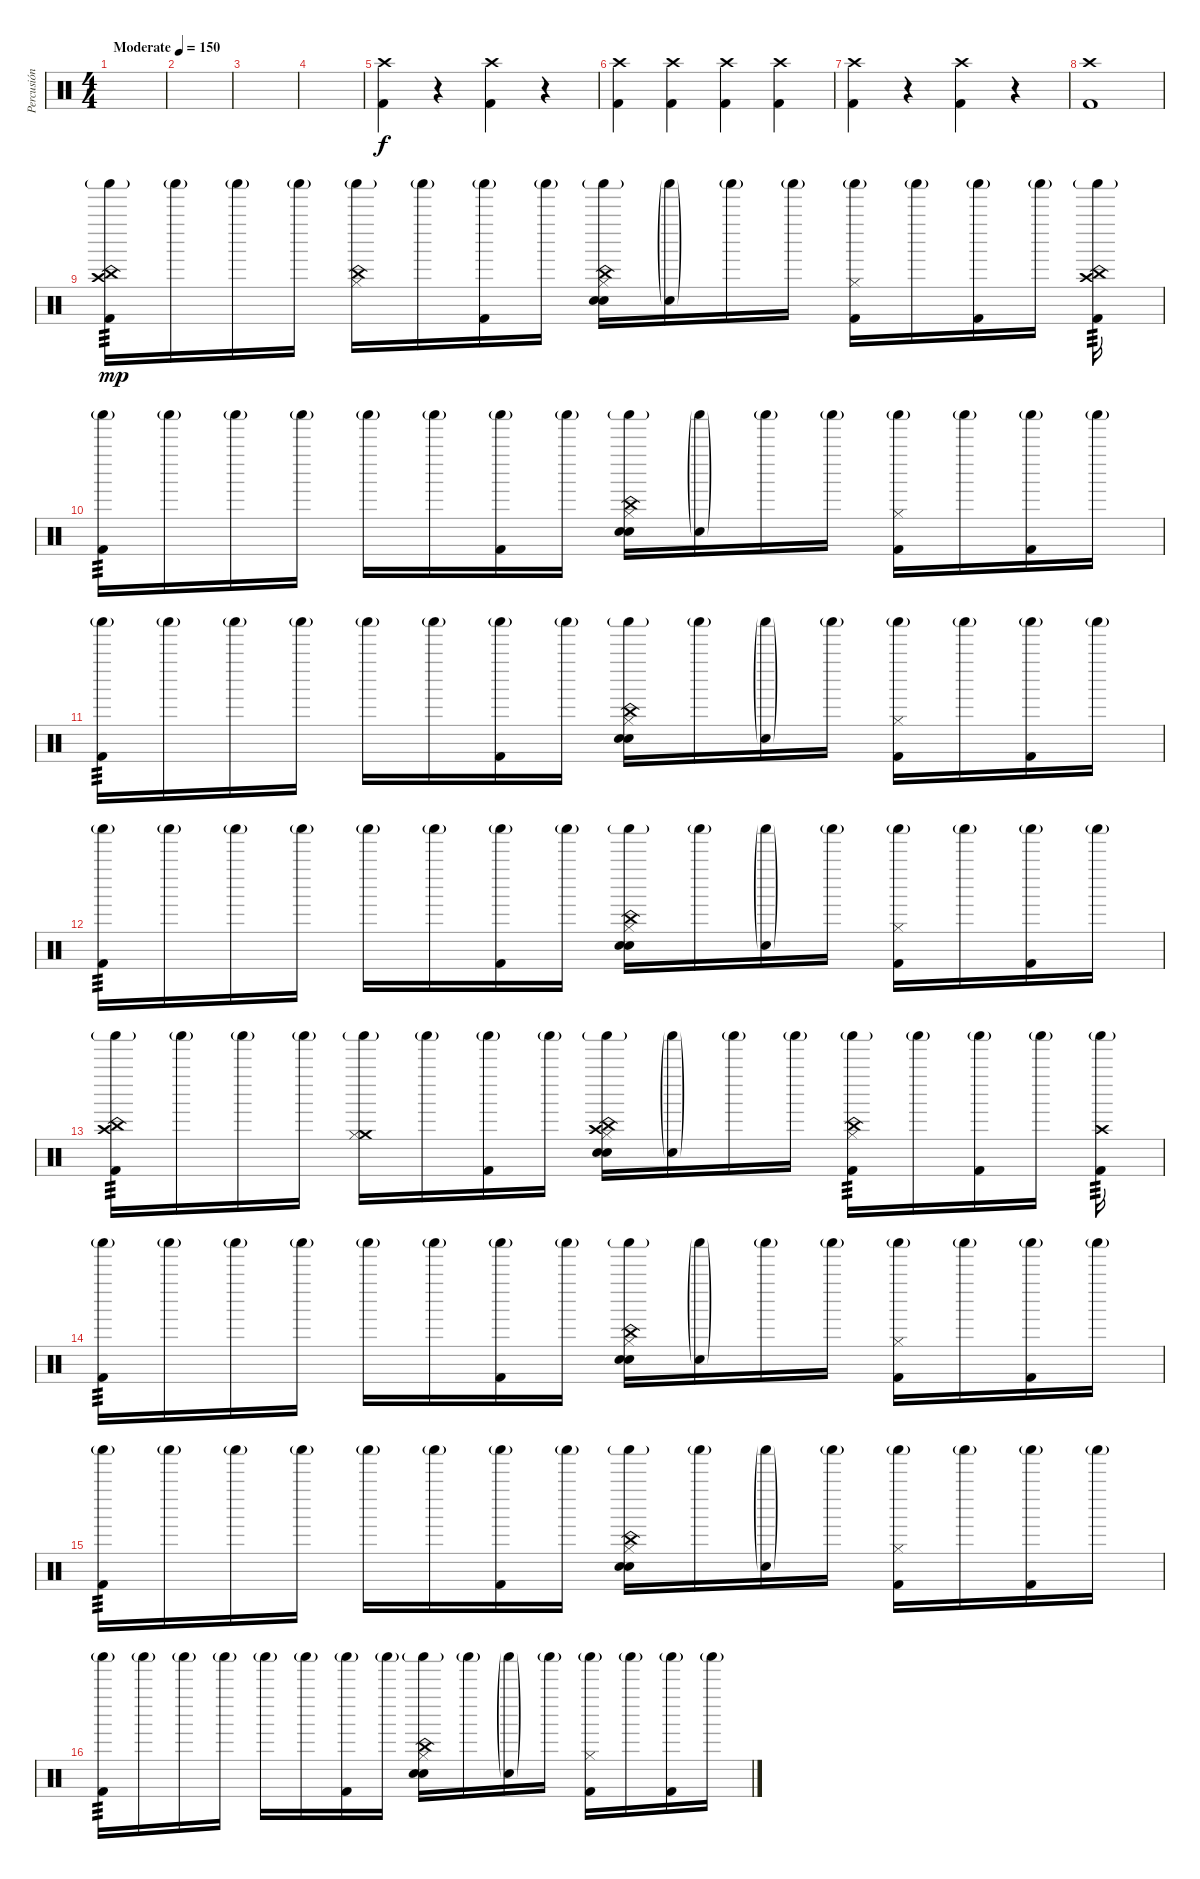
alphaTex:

\track ("Percusión" "Percusión") {instrument percussion}
\staff {score}
\articulation defaults
\ts (4 4)
\tempo (150 "Moderate")
\clef neutral
\ks c
|
|
|
|
("Crash high (hit)" "Kick (hit) 2").4 r.4 ("Crash high (hit)" "Kick (hit) 2").4 r.4 |
("Crash high (hit)" "Kick (hit) 2").4 ("Crash high (hit)" "Kick (hit) 2").4 ("Crash high (hit)" "Kick (hit) 2").4 ("Crash high (hit)" "Kick (hit) 2").4 |
("Crash high (hit)" "Kick (hit) 2").4 r.4 ("Crash high (hit)" "Kick (hit) 2").4 r.4 |
("Crash high (hit)" "Kick (hit) 2").1 |
("China (hit)" "Crash high (hit)" "Shaker (hit)"{g} "Kick (hit) 2").16{tp 3 dy mp} "Shaker (hit)"{g}.16 "Shaker (hit)"{g}.16 "Shaker (hit)"{g}.16 ("China (hit)" "Hi-Hat (closed)" "Shaker (hit)"{g}).16 "Shaker (hit)"{g}.16 ("Shaker (hit)"{g} "Kick (hit) 2").16 "Shaker (hit)"{g}.16 ("China (hit)" "Hand Clap (hit)" "Hi-Hat (closed)" "Shaker (hit)"{g} "Electric Snare (hit)").16 ("Hand Clap (hit)"{g} "Shaker (hit)"{g}).16 "Shaker (hit)"{g}.16 "Shaker (hit)"{g}.16 ("Hi-Hat (closed)" "Shaker (hit)"{g} "Kick (hit) 2").16 "Shaker (hit)"{g}.16 ("Shaker (hit)"{g} "Kick (hit) 2").16 "Shaker (hit)"{g}.16 ("China (hit)" "Crash high (hit)" "Shaker (hit)"{g} "Kick (hit) 2").16{tp 3} |
("Shaker (hit)"{g} "Kick (hit) 2").16{tp 3} "Shaker (hit)"{g}.16 "Shaker (hit)"{g}.16 "Shaker (hit)"{g}.16 "Shaker (hit)"{g}.16 "Shaker (hit)"{g}.16 ("Shaker (hit)"{g} "Kick (hit) 2").16 "Shaker (hit)"{g}.16 ("China (hit)" "Hand Clap (hit)" "Hi-Hat (closed)" "Shaker (hit)"{g} "Electric Snare (hit)").16 ("Hand Clap (hit)"{g} "Shaker (hit)"{g}).16 "Shaker (hit)"{g}.16 "Shaker (hit)"{g}.16 ("Hi-Hat (closed)" "Shaker (hit)"{g} "Kick (hit) 2").16 "Shaker (hit)"{g}.16 ("Shaker (hit)"{g} "Kick (hit) 2").16 "Shaker (hit)"{g}.16 |
("Shaker (hit)"{g} "Kick (hit) 2").16{tp 3} "Shaker (hit)"{g}.16 "Shaker (hit)"{g}.16 "Shaker (hit)"{g}.16 "Shaker (hit)"{g}.16 "Shaker (hit)"{g}.16 ("Shaker (hit)"{g} "Kick (hit) 2").16 "Shaker (hit)"{g}.16 ("China (hit)" "Hand Clap (hit)" "Hi-Hat (closed)" "Shaker (hit)"{g} "Electric Snare (hit)").16 "Shaker (hit)"{g}.16 ("Hand Clap (hit)"{g} "Shaker (hit)"{g}).16 "Shaker (hit)"{g}.16 ("Hi-Hat (closed)" "Shaker (hit)"{g} "Kick (hit) 2").16 "Shaker (hit)"{g}.16 ("Shaker (hit)"{g} "Kick (hit) 2").16 "Shaker (hit)"{g}.16 |
("Shaker (hit)"{g} "Kick (hit) 2").16{tp 3} "Shaker (hit)"{g}.16 "Shaker (hit)"{g}.16 "Shaker (hit)"{g}.16 "Shaker (hit)"{g}.16 "Shaker (hit)"{g}.16 ("Shaker (hit)"{g} "Kick (hit) 2").16 "Shaker (hit)"{g}.16 ("China (hit)" "Hand Clap (hit)" "Hi-Hat (closed)" "Shaker (hit)"{g} "Electric Snare (hit)").16 "Shaker (hit)"{g}.16 ("Hand Clap (hit)"{g} "Shaker (hit)"{g}).16 "Shaker (hit)"{g}.16 ("Hi-Hat (closed)" "Shaker (hit)"{g} "Kick (hit) 2").16 "Shaker (hit)"{g}.16 ("Shaker (hit)"{g} "Kick (hit) 2").16 "Shaker (hit)"{g}.16 |
("China (hit)" "Crash high (hit)" "Shaker (hit)"{g} "Kick (hit) 2").16{tp 3} "Shaker (hit)"{g}.16 "Shaker (hit)"{g}.16 "Shaker (hit)"{g}.16 ("Crash medium (hit)" "Hi-Hat (closed)" "Shaker (hit)"{g}).16 "Shaker (hit)"{g}.16 ("Shaker (hit)"{g} "Kick (hit) 2").16 "Shaker (hit)"{g}.16 ("Crash high (hit)" "China (hit)" "Hand Clap (hit)" "Hi-Hat (closed)" "Shaker (hit)"{g} "Electric Snare (hit)").16 ("Hand Clap (hit)"{g} "Shaker (hit)"{g}).16 "Shaker (hit)"{g}.16 "Shaker (hit)"{g}.16 ("China (hit)" "Hi-Hat (closed)" "Shaker (hit)"{g} "Kick (hit) 2").16{tp 3} "Shaker (hit)"{g}.16 ("Shaker (hit)"{g} "Kick (hit) 2").16 "Shaker (hit)"{g}.16 ("Crash high (hit)" "Shaker (hit)"{g} "Kick (hit) 2").16{tp 3} |
("Shaker (hit)"{g} "Kick (hit) 2").16{tp 3} "Shaker (hit)"{g}.16 "Shaker (hit)"{g}.16 "Shaker (hit)"{g}.16 "Shaker (hit)"{g}.16 "Shaker (hit)"{g}.16 ("Shaker (hit)"{g} "Kick (hit) 2").16 "Shaker (hit)"{g}.16 ("China (hit)" "Hand Clap (hit)" "Hi-Hat (closed)" "Shaker (hit)"{g} "Electric Snare (hit)").16 ("Hand Clap (hit)"{g} "Shaker (hit)"{g}).16 "Shaker (hit)"{g}.16 "Shaker (hit)"{g}.16 ("Hi-Hat (closed)" "Shaker (hit)"{g} "Kick (hit) 2").16 "Shaker (hit)"{g}.16 ("Shaker (hit)"{g} "Kick (hit) 2").16 "Shaker (hit)"{g}.16 |
("Shaker (hit)"{g} "Kick (hit) 2").16{tp 3} "Shaker (hit)"{g}.16 "Shaker (hit)"{g}.16 "Shaker (hit)"{g}.16 "Shaker (hit)"{g}.16 "Shaker (hit)"{g}.16 ("Shaker (hit)"{g} "Kick (hit) 2").16 "Shaker (hit)"{g}.16 ("China (hit)" "Hand Clap (hit)" "Hi-Hat (closed)" "Shaker (hit)"{g} "Electric Snare (hit)").16 "Shaker (hit)"{g}.16 ("Hand Clap (hit)"{g} "Shaker (hit)"{g}).16 "Shaker (hit)"{g}.16 ("Hi-Hat (closed)" "Shaker (hit)"{g} "Kick (hit) 2").16 "Shaker (hit)"{g}.16 ("Shaker (hit)"{g} "Kick (hit) 2").16 "Shaker (hit)"{g}.16 |
("Shaker (hit)"{g} "Kick (hit) 2").16{tp 3} "Shaker (hit)"{g}.16 "Shaker (hit)"{g}.16 "Shaker (hit)"{g}.16 "Shaker (hit)"{g}.16 "Shaker (hit)"{g}.16 ("Shaker (hit)"{g} "Kick (hit) 2").16 "Shaker (hit)"{g}.16 ("China (hit)" "Hand Clap (hit)" "Hi-Hat (closed)" "Shaker (hit)"{g} "Electric Snare (hit)").16 "Shaker (hit)"{g}.16 ("Hand Clap (hit)"{g} "Shaker (hit)"{g}).16 "Shaker (hit)"{g}.16 ("Hi-Hat (closed)" "Shaker (hit)"{g} "Kick (hit) 2").16 "Shaker (hit)"{g}.16 ("Shaker (hit)"{g} "Kick (hit) 2").16 "Shaker (hit)"{g}.16
